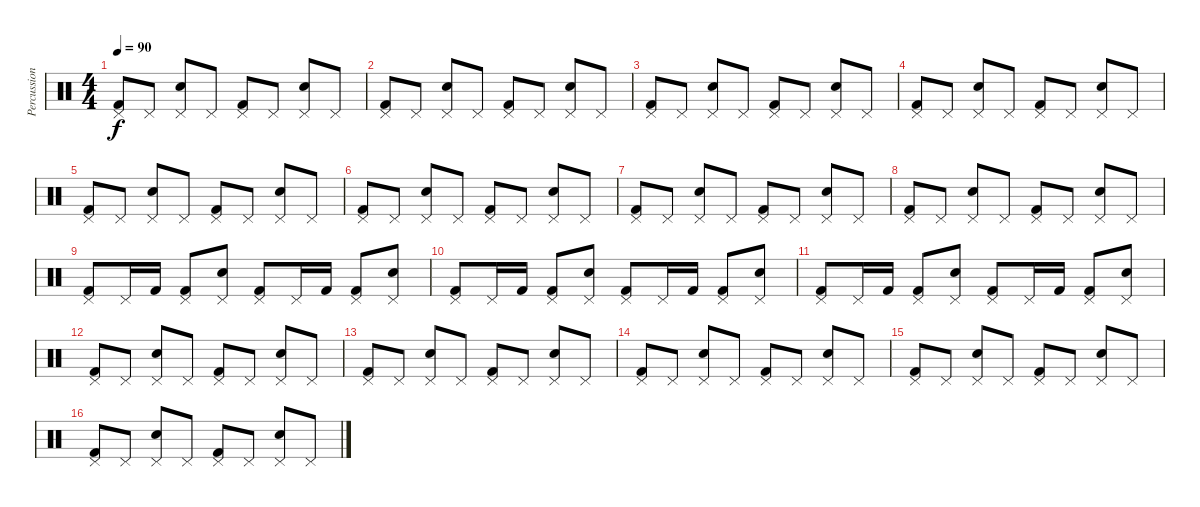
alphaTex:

\track ("Percussion" "Percussion") {instrument percussion}
\staff {score}
\articulation defaults
\ts (4 4)
\tempo 90
\clef neutral
\ks c
("Pedal Hi-Hat (hit)" "Kick (hit) 2").8{dy f} "Pedal Hi-Hat (hit)".8 ("Pedal Hi-Hat (hit)" "Snare (hit) 2").8 "Pedal Hi-Hat (hit)".8 ("Pedal Hi-Hat (hit)" "Kick (hit) 2").8 "Pedal Hi-Hat (hit)".8 ("Pedal Hi-Hat (hit)" "Snare (hit) 2").8 "Pedal Hi-Hat (hit)".8 |
("Pedal Hi-Hat (hit)" "Kick (hit) 2").8 "Pedal Hi-Hat (hit)".8 ("Pedal Hi-Hat (hit)" "Snare (hit) 2").8 "Pedal Hi-Hat (hit)".8 ("Pedal Hi-Hat (hit)" "Kick (hit) 2").8 "Pedal Hi-Hat (hit)".8 ("Pedal Hi-Hat (hit)" "Snare (hit) 2").8 "Pedal Hi-Hat (hit)".8 |
("Pedal Hi-Hat (hit)" "Kick (hit) 2").8 "Pedal Hi-Hat (hit)".8 ("Pedal Hi-Hat (hit)" "Snare (hit) 2").8 "Pedal Hi-Hat (hit)".8 ("Pedal Hi-Hat (hit)" "Kick (hit) 2").8 "Pedal Hi-Hat (hit)".8 ("Pedal Hi-Hat (hit)" "Snare (hit) 2").8 "Pedal Hi-Hat (hit)".8 |
("Pedal Hi-Hat (hit)" "Kick (hit) 2").8 "Pedal Hi-Hat (hit)".8 ("Pedal Hi-Hat (hit)" "Snare (hit) 2").8 "Pedal Hi-Hat (hit)".8 ("Pedal Hi-Hat (hit)" "Kick (hit) 2").8 "Pedal Hi-Hat (hit)".8 ("Pedal Hi-Hat (hit)" "Snare (hit) 2").8 "Pedal Hi-Hat (hit)".8 |
("Pedal Hi-Hat (hit)" "Kick (hit) 2").8 "Pedal Hi-Hat (hit)".8 ("Pedal Hi-Hat (hit)" "Snare (hit) 2").8 "Pedal Hi-Hat (hit)".8 ("Pedal Hi-Hat (hit)" "Kick (hit) 2").8 "Pedal Hi-Hat (hit)".8 ("Pedal Hi-Hat (hit)" "Snare (hit) 2").8 "Pedal Hi-Hat (hit)".8 |
("Pedal Hi-Hat (hit)" "Kick (hit) 2").8 "Pedal Hi-Hat (hit)".8 ("Pedal Hi-Hat (hit)" "Snare (hit) 2").8 "Pedal Hi-Hat (hit)".8 ("Pedal Hi-Hat (hit)" "Kick (hit) 2").8 "Pedal Hi-Hat (hit)".8 ("Pedal Hi-Hat (hit)" "Snare (hit) 2").8 "Pedal Hi-Hat (hit)".8 |
("Pedal Hi-Hat (hit)" "Kick (hit) 2").8 "Pedal Hi-Hat (hit)".8 ("Pedal Hi-Hat (hit)" "Snare (hit) 2").8 "Pedal Hi-Hat (hit)".8 ("Pedal Hi-Hat (hit)" "Kick (hit) 2").8 "Pedal Hi-Hat (hit)".8 ("Pedal Hi-Hat (hit)" "Snare (hit) 2").8 "Pedal Hi-Hat (hit)".8 |
("Pedal Hi-Hat (hit)" "Kick (hit) 2").8 "Pedal Hi-Hat (hit)".8 ("Pedal Hi-Hat (hit)" "Snare (hit) 2").8 "Pedal Hi-Hat (hit)".8 ("Pedal Hi-Hat (hit)" "Kick (hit) 2").8 "Pedal Hi-Hat (hit)".8 ("Pedal Hi-Hat (hit)" "Snare (hit) 2").8 "Pedal Hi-Hat (hit)".8 |
("Pedal Hi-Hat (hit)" "Kick (hit) 2").8 "Pedal Hi-Hat (hit)".16 "Kick (hit) 2".16 ("Pedal Hi-Hat (hit)" "Kick (hit) 2").8 ("Pedal Hi-Hat (hit)" "Snare (hit) 2").8 ("Pedal Hi-Hat (hit)" "Kick (hit) 2").8 "Pedal Hi-Hat (hit)".16 "Kick (hit) 2".16 ("Pedal Hi-Hat (hit)" "Kick (hit) 2").8 ("Pedal Hi-Hat (hit)" "Snare (hit) 2").8 |
("Pedal Hi-Hat (hit)" "Kick (hit) 2").8 "Pedal Hi-Hat (hit)".16 "Kick (hit) 2".16 ("Pedal Hi-Hat (hit)" "Kick (hit) 2").8 ("Pedal Hi-Hat (hit)" "Snare (hit) 2").8 ("Pedal Hi-Hat (hit)" "Kick (hit) 2").8 "Pedal Hi-Hat (hit)".16 "Kick (hit) 2".16 ("Pedal Hi-Hat (hit)" "Kick (hit) 2").8 ("Pedal Hi-Hat (hit)" "Snare (hit) 2").8 |
("Pedal Hi-Hat (hit)" "Kick (hit) 2").8 "Pedal Hi-Hat (hit)".16 "Kick (hit) 2".16 ("Pedal Hi-Hat (hit)" "Kick (hit) 2").8 ("Pedal Hi-Hat (hit)" "Snare (hit) 2").8 ("Pedal Hi-Hat (hit)" "Kick (hit) 2").8 "Pedal Hi-Hat (hit)".16 "Kick (hit) 2".16 ("Pedal Hi-Hat (hit)" "Kick (hit) 2").8 ("Pedal Hi-Hat (hit)" "Snare (hit) 2").8 |
("Pedal Hi-Hat (hit)" "Kick (hit) 2").8 "Pedal Hi-Hat (hit)".8 ("Pedal Hi-Hat (hit)" "Snare (hit) 2").8 "Pedal Hi-Hat (hit)".8 ("Pedal Hi-Hat (hit)" "Kick (hit) 2").8 "Pedal Hi-Hat (hit)".8 ("Pedal Hi-Hat (hit)" "Snare (hit) 2").8 "Pedal Hi-Hat (hit)".8 |
("Pedal Hi-Hat (hit)" "Kick (hit) 2").8 "Pedal Hi-Hat (hit)".8 ("Pedal Hi-Hat (hit)" "Snare (hit) 2").8 "Pedal Hi-Hat (hit)".8 ("Pedal Hi-Hat (hit)" "Kick (hit) 2").8 "Pedal Hi-Hat (hit)".8 ("Pedal Hi-Hat (hit)" "Snare (hit) 2").8 "Pedal Hi-Hat (hit)".8 |
("Pedal Hi-Hat (hit)" "Kick (hit) 2").8 "Pedal Hi-Hat (hit)".8 ("Pedal Hi-Hat (hit)" "Snare (hit) 2").8 "Pedal Hi-Hat (hit)".8 ("Pedal Hi-Hat (hit)" "Kick (hit) 2").8 "Pedal Hi-Hat (hit)".8 ("Pedal Hi-Hat (hit)" "Snare (hit) 2").8 "Pedal Hi-Hat (hit)".8 |
("Pedal Hi-Hat (hit)" "Kick (hit) 2").8 "Pedal Hi-Hat (hit)".8 ("Pedal Hi-Hat (hit)" "Snare (hit) 2").8 "Pedal Hi-Hat (hit)".8 ("Pedal Hi-Hat (hit)" "Kick (hit) 2").8 "Pedal Hi-Hat (hit)".8 ("Pedal Hi-Hat (hit)" "Snare (hit) 2").8 "Pedal Hi-Hat (hit)".8 |
("Pedal Hi-Hat (hit)" "Kick (hit) 2").8 "Pedal Hi-Hat (hit)".8 ("Pedal Hi-Hat (hit)" "Snare (hit) 2").8 "Pedal Hi-Hat (hit)".8 ("Pedal Hi-Hat (hit)" "Kick (hit) 2").8 "Pedal Hi-Hat (hit)".8 ("Pedal Hi-Hat (hit)" "Snare (hit) 2").8 "Pedal Hi-Hat (hit)".8
